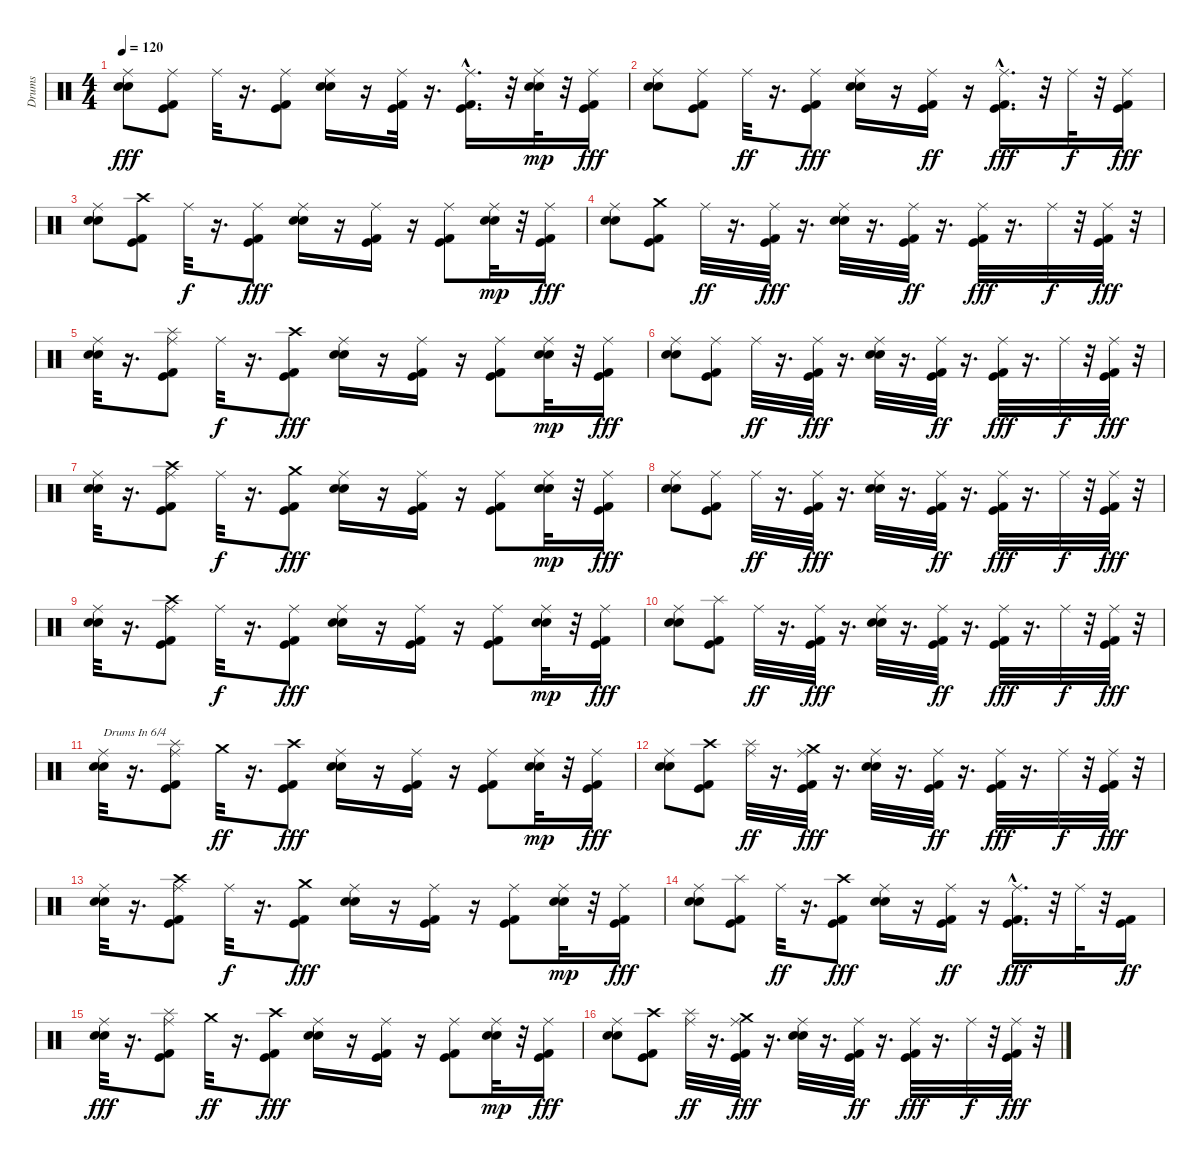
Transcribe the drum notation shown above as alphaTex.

\track ("Drums" "Drums") {instrument percussion}
\staff {score}
\articulation defaults
\ts (4 4)
\tempo 120
\clef neutral
\ks c
("Ride (middle)" "Snare (hit) 2" "Electric Snare (hit)").8{dy fff} ("Ride (middle)" "Kick (hit) 2" "Kick (hit)").8 "Ride (middle)".32 r.16{d} ("Ride (middle)" "Kick (hit) 2" "Kick (hit)").8 ("Ride (middle)" "Snare (hit) 2" "Electric Snare (hit)").16 r.16 ("Ride (middle)" "Kick (hit) 2" "Kick (hit)").32 r.16{d} ("Ride (middle)" "Kick (hit)"{hac} "Kick (hit) 2"{hac}).16{d} r.32 ("Ride (middle)" "Snare (hit) 2" "Electric Snare (hit)").32{dy mp} r.32 ("Ride (middle)" "Kick (hit)" "Kick (hit) 2").16{dy fff} |
("Ride (middle)" "Snare (hit) 2" "Electric Snare (hit)").8 ("Ride (middle)" "Kick (hit) 2" "Kick (hit)").8 "Ride (middle)".32{dy ff} r.16{d} ("Ride (middle)" "Kick (hit) 2" "Kick (hit)").8{dy fff} ("Ride (middle)" "Electric Snare (hit)" "Snare (hit) 2").16 r.16 ("Ride (middle)" "Kick (hit) 2" "Kick (hit)").16{dy ff} r.16 ("Ride (middle)" "Kick (hit) 2"{hac} "Kick (hit)"{hac}).16{d dy fff} r.32 "Ride (middle)".32{dy f} r.32 ("Ride (middle)" "Kick (hit) 2" "Kick (hit)").16{dy fff} |
("Ride (middle)" "Snare (hit) 2" "Electric Snare (hit)").8 ("Crash high (hit)" "Kick (hit) 2" "Kick (hit)").8 "Ride (middle)".32{dy f} r.16{d} ("Ride (middle)" "Kick (hit) 2" "Kick (hit)").8{dy fff} ("Ride (middle)" "Electric Snare (hit)" "Snare (hit) 2").16 r.16 ("Ride (middle)" "Kick (hit) 2" "Kick (hit)").16 r.16 ("Ride (middle)" "Kick (hit) 2" "Kick (hit)").8 ("Ride (middle)" "Snare (hit) 2" "Electric Snare (hit)").32{dy mp} r.32 ("Ride (middle)" "Kick (hit) 2" "Kick (hit)").16{dy fff} |
("Ride (middle)" "Snare (hit) 2" "Electric Snare (hit)").8 ("Crash medium (hit)" "Kick (hit) 2" "Kick (hit)").8 "Ride (middle)".32{dy ff} r.16{d} ("Ride (middle)" "Kick (hit) 2" "Kick (hit)").32{dy fff} r.16{d} ("Ride (middle)" "Electric Snare (hit)" "Snare (hit) 2").32 r.16{d} ("Ride (middle)" "Kick (hit) 2" "Kick (hit)").32{dy ff} r.16{d} ("Ride (middle)" "Kick (hit) 2" "Kick (hit)").32{dy fff} r.16{d} "Ride (middle)".32{dy f} r.32 ("Ride (middle)" "Kick (hit) 2" "Kick (hit)").32{dy fff} r.32 |
("Ride (middle)" "Snare (hit) 2" "Electric Snare (hit)").32 r.16{d} ("Ride (middle)" "Splash (hit)" "Kick (hit) 2" "Kick (hit)").8 "Ride (middle)".32{dy f} r.16{d} ("Crash high (hit)" "Kick (hit) 2" "Kick (hit)").8{dy fff} ("Ride (middle)" "Electric Snare (hit)" "Snare (hit) 2").16 r.16 ("Ride (middle)" "Kick (hit) 2" "Kick (hit)").16 r.16 ("Ride (middle)" "Kick (hit) 2" "Kick (hit)").8 ("Ride (middle)" "Snare (hit) 2" "Electric Snare (hit)").32{dy mp} r.32 ("Ride (middle)" "Kick (hit) 2" "Kick (hit)").16{dy fff} |
("Ride (middle)" "Snare (hit) 2" "Electric Snare (hit)").8 ("Ride (middle)" "Kick (hit) 2" "Kick (hit)").8 "Ride (middle)".32{dy ff} r.16{d} ("Ride (middle)" "Kick (hit) 2" "Kick (hit)").32{dy fff} r.16{d} ("Ride (middle)" "Electric Snare (hit)" "Snare (hit) 2").32 r.16{d} ("Ride (middle)" "Kick (hit) 2" "Kick (hit)").32{dy ff} r.16{d} ("Ride (middle)" "Kick (hit) 2" "Kick (hit)").32{dy fff} r.16{d} "Ride (middle)".32{dy f} r.32 ("Ride (middle)" "Kick (hit) 2" "Kick (hit)").32{dy fff} r.32 |
("Ride (middle)" "Snare (hit) 2" "Electric Snare (hit)").32 r.16{d} ("Ride (middle)" "Crash high (hit)" "Kick (hit) 2" "Kick (hit)").8 "Ride (middle)".32{dy f} r.16{d} ("Crash medium (hit)" "Kick (hit) 2" "Kick (hit)").8{dy fff} ("Ride (middle)" "Electric Snare (hit)" "Snare (hit) 2").16 r.16 ("Ride (middle)" "Kick (hit) 2" "Kick (hit)").16 r.16 ("Ride (middle)" "Kick (hit) 2" "Kick (hit)").8 ("Ride (middle)" "Snare (hit) 2" "Electric Snare (hit)").32{dy mp} r.32 ("Ride (middle)" "Kick (hit) 2" "Kick (hit)").16{dy fff} |
("Ride (middle)" "Snare (hit) 2" "Electric Snare (hit)").8 ("Ride (middle)" "Kick (hit) 2" "Kick (hit)").8 "Ride (middle)".32{dy ff} r.16{d} ("Ride (middle)" "Kick (hit) 2" "Kick (hit)").32{dy fff} r.16{d} ("Ride (middle)" "Electric Snare (hit)" "Snare (hit) 2").32 r.16{d} ("Ride (middle)" "Kick (hit) 2" "Kick (hit)").32{dy ff} r.16{d} ("Ride (middle)" "Kick (hit) 2" "Kick (hit)").32{dy fff} r.16{d} "Ride (middle)".32{dy f} r.32 ("Ride (middle)" "Kick (hit) 2" "Kick (hit)").32{dy fff} r.32 |
("Ride (middle)" "Snare (hit) 2" "Electric Snare (hit)").32 r.16{d} ("Crash high (hit)" "Ride (middle)" "Kick (hit) 2" "Kick (hit)").8 "Ride (middle)".32{dy f} r.16{d} ("Ride (middle)" "Kick (hit) 2" "Kick (hit)").8{dy fff} ("Ride (middle)" "Electric Snare (hit)" "Snare (hit) 2").16 r.16 ("Ride (middle)" "Kick (hit) 2" "Kick (hit)").16 r.16 ("Ride (middle)" "Kick (hit) 2" "Kick (hit)").8 ("Ride (middle)" "Snare (hit) 2" "Electric Snare (hit)").32{dy mp} r.32 ("Ride (middle)" "Kick (hit) 2" "Kick (hit)").16{dy fff} |
("Ride (middle)" "Snare (hit) 2" "Electric Snare (hit)").8 ("Splash (hit)" "Kick (hit) 2" "Kick (hit)").8 "Ride (middle)".32{dy ff} r.16{d} ("Ride (middle)" "Kick (hit) 2" "Kick (hit)").32{dy fff} r.16{d} ("Ride (middle)" "Electric Snare (hit)" "Snare (hit) 2").32 r.16{d} ("Ride (middle)" "Kick (hit) 2" "Kick (hit)").32{dy ff} r.16{d} ("Ride (middle)" "Kick (hit) 2" "Kick (hit)").32{dy fff} r.16{d} "Ride (middle)".32{dy f} r.32 ("Ride (middle)" "Kick (hit) 2" "Kick (hit)").32{dy fff} r.32 |
("Ride (middle)" "Snare (hit) 2" "Electric Snare (hit)").32{txt "Drums In 6/4"} r.16{d} ("Splash (hit)" "Ride (middle)" "Kick (hit) 2" "Kick (hit)").8 "Crash medium (hit)".32{dy ff} r.16{d} ("Crash high (hit)" "Kick (hit) 2" "Kick (hit)").8{dy fff} ("Ride (middle)" "Electric Snare (hit)" "Snare (hit) 2").16 r.16 ("Ride (middle)" "Kick (hit) 2" "Kick (hit)").16 r.16 ("Ride (middle)" "Kick (hit) 2" "Kick (hit)").8 ("Ride (middle)" "Snare (hit) 2" "Electric Snare (hit)").32{dy mp} r.32 ("Ride (middle)" "Kick (hit) 2" "Kick (hit)").16{dy fff} |
("Ride (middle)" "Snare (hit) 2" "Electric Snare (hit)").8 ("Crash high (hit)" "Kick (hit) 2" "Kick (hit)").8 ("Splash (hit)" "Ride (middle)").32{dy ff} r.16{d} ("Crash medium (hit)" "Ride (middle)" "Kick (hit) 2" "Kick (hit)").32{dy fff} r.16{d} ("Ride (middle)" "Electric Snare (hit)" "Snare (hit) 2").32 r.16{d} ("Ride (middle)" "Kick (hit) 2" "Kick (hit)").32{dy ff} r.16{d} ("Ride (middle)" "Kick (hit) 2" "Kick (hit)").32{dy fff} r.16{d} "Ride (middle)".32{dy f} r.32 ("Ride (middle)" "Kick (hit) 2" "Kick (hit)").32{dy fff} r.32 |
("Ride (middle)" "Snare (hit) 2" "Electric Snare (hit)").32 r.16{d} ("Ride (middle)" "Crash high (hit)" "Kick (hit) 2" "Kick (hit)").8 "Ride (middle)".32{dy f} r.16{d} ("Crash medium (hit)" "Kick (hit) 2" "Kick (hit)").8{dy fff} ("Ride (middle)" "Electric Snare (hit)" "Snare (hit) 2").16 r.16 ("Ride (middle)" "Kick (hit) 2" "Kick (hit)").16 r.16 ("Ride (middle)" "Kick (hit) 2" "Kick (hit)").8 ("Ride (middle)" "Snare (hit) 2" "Electric Snare (hit)").32{dy mp} r.32 ("Ride (middle)" "Kick (hit) 2" "Kick (hit)").16{dy fff} |
("Ride (middle)" "Snare (hit) 2" "Electric Snare (hit)").8 ("Splash (hit)" "Kick (hit) 2" "Kick (hit)").8 "Ride (middle)".32{dy ff} r.16{d} ("Crash high (hit)" "Kick (hit)" "Kick (hit) 2").8{dy fff} ("Ride (middle)" "Electric Snare (hit)" "Snare (hit) 2").16 r.16 ("Ride (middle)" "Kick (hit) 2" "Kick (hit)").16{dy ff} r.16 ("Ride (middle)" "Kick (hit) 2"{hac} "Kick (hit)"{hac}).16{d dy fff} r.32 "Ride (middle)".32 r.32 ("Kick (hit)" "Kick (hit) 2").16{dy ff} |
("Ride (middle)" "Snare (hit) 2" "Electric Snare (hit)").32{dy fff} r.16{d} ("Splash (hit)" "Ride (middle)" "Kick (hit) 2" "Kick (hit)").8 "Crash medium (hit)".32{dy ff} r.16{d} ("Crash high (hit)" "Kick (hit) 2" "Kick (hit)").8{dy fff} ("Ride (middle)" "Electric Snare (hit)" "Snare (hit) 2").16 r.16 ("Ride (middle)" "Kick (hit) 2" "Kick (hit)").16 r.16 ("Ride (middle)" "Kick (hit) 2" "Kick (hit)").8 ("Ride (middle)" "Snare (hit) 2" "Electric Snare (hit)").32{dy mp} r.32 ("Ride (middle)" "Kick (hit) 2" "Kick (hit)").16{dy fff} |
("Ride (middle)" "Snare (hit) 2" "Electric Snare (hit)").8 ("Crash high (hit)" "Kick (hit) 2" "Kick (hit)").8 ("Splash (hit)" "Ride (middle)").32{dy ff} r.16{d} ("Crash medium (hit)" "Ride (middle)" "Kick (hit) 2" "Kick (hit)").32{dy fff} r.16{d} ("Ride (middle)" "Electric Snare (hit)" "Snare (hit) 2").32 r.16{d} ("Ride (middle)" "Kick (hit) 2" "Kick (hit)").32{dy ff} r.16{d} ("Ride (middle)" "Kick (hit) 2" "Kick (hit)").32{dy fff} r.16{d} "Ride (middle)".32{dy f} r.32 ("Ride (middle)" "Kick (hit) 2" "Kick (hit)").32{dy fff} r.32
